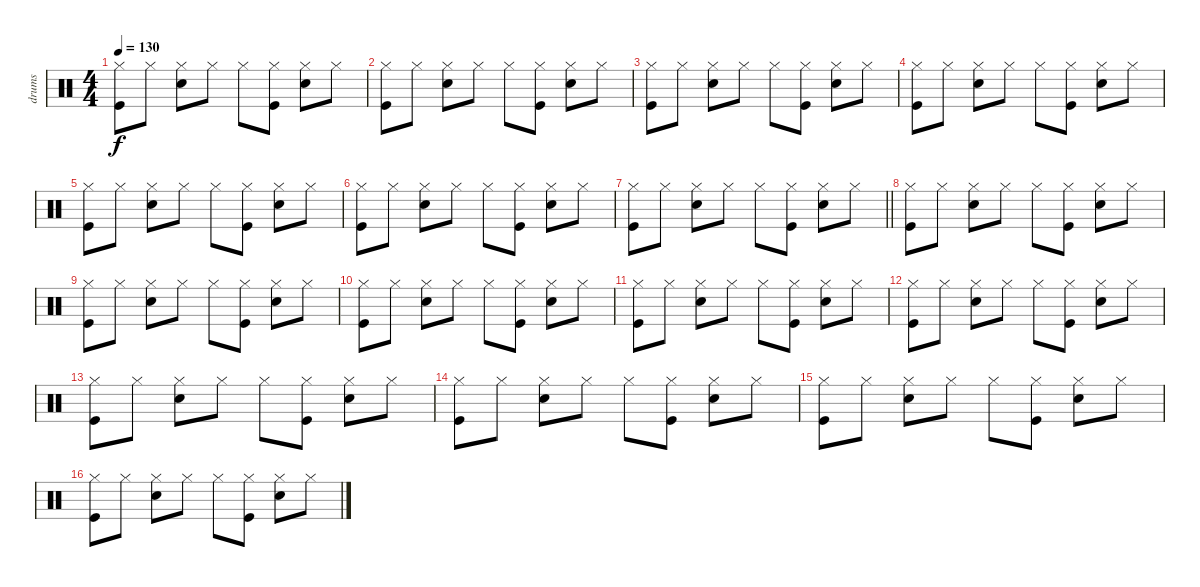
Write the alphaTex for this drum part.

\track ("drums" "drums") {instrument percussion}
\staff {score}
\articulation defaults
\ts (4 4)
\tempo 130
\clef neutral
\ks c
("Hi-Hat (closed)" "Kick (hit)").8{dy f} "Hi-Hat (closed)".8 ("Hi-Hat (closed)" "Snare (hit) 2").8 "Hi-Hat (closed)".8 "Hi-Hat (closed)".8 ("Hi-Hat (closed)" "Kick (hit)").8 ("Hi-Hat (closed)" "Snare (hit) 2").8 "Hi-Hat (closed)".8 |
("Hi-Hat (closed)" "Kick (hit)").8 "Hi-Hat (closed)".8 ("Hi-Hat (closed)" "Snare (hit) 2").8 "Hi-Hat (closed)".8 "Hi-Hat (closed)".8 ("Hi-Hat (closed)" "Kick (hit)").8 ("Hi-Hat (closed)" "Snare (hit) 2").8 "Hi-Hat (closed)".8 |
("Hi-Hat (closed)" "Kick (hit)").8 "Hi-Hat (closed)".8 ("Hi-Hat (closed)" "Snare (hit) 2").8 "Hi-Hat (closed)".8 "Hi-Hat (closed)".8 ("Hi-Hat (closed)" "Kick (hit)").8 ("Hi-Hat (closed)" "Snare (hit) 2").8 "Hi-Hat (closed)".8 |
("Hi-Hat (closed)" "Kick (hit)").8 "Hi-Hat (closed)".8 ("Hi-Hat (closed)" "Snare (hit) 2").8 "Hi-Hat (closed)".8 "Hi-Hat (closed)".8 ("Hi-Hat (closed)" "Kick (hit)").8 ("Hi-Hat (closed)" "Snare (hit) 2").8 "Hi-Hat (closed)".8 |
("Hi-Hat (closed)" "Kick (hit)").8 "Hi-Hat (closed)".8 ("Hi-Hat (closed)" "Snare (hit) 2").8 "Hi-Hat (closed)".8 "Hi-Hat (closed)".8 ("Hi-Hat (closed)" "Kick (hit)").8 ("Hi-Hat (closed)" "Snare (hit) 2").8 "Hi-Hat (closed)".8 |
("Hi-Hat (closed)" "Kick (hit)").8 "Hi-Hat (closed)".8 ("Hi-Hat (closed)" "Snare (hit) 2").8 "Hi-Hat (closed)".8 "Hi-Hat (closed)".8 ("Hi-Hat (closed)" "Kick (hit)").8 ("Hi-Hat (closed)" "Snare (hit) 2").8 "Hi-Hat (closed)".8 |
\barLineRight lightlight
("Hi-Hat (closed)" "Kick (hit)").8 "Hi-Hat (closed)".8 ("Hi-Hat (closed)" "Snare (hit) 2").8 "Hi-Hat (closed)".8 "Hi-Hat (closed)".8 ("Hi-Hat (closed)" "Kick (hit)").8 ("Hi-Hat (closed)" "Snare (hit) 2").8 "Hi-Hat (closed)".8 |
("Hi-Hat (closed)" "Kick (hit)").8 "Hi-Hat (closed)".8 ("Hi-Hat (closed)" "Snare (hit) 2").8 "Hi-Hat (closed)".8 "Hi-Hat (closed)".8 ("Hi-Hat (closed)" "Kick (hit)").8 ("Hi-Hat (closed)" "Snare (hit) 2").8 "Hi-Hat (closed)".8 |
("Hi-Hat (closed)" "Kick (hit)").8 "Hi-Hat (closed)".8 ("Hi-Hat (closed)" "Snare (hit) 2").8 "Hi-Hat (closed)".8 "Hi-Hat (closed)".8 ("Hi-Hat (closed)" "Kick (hit)").8 ("Hi-Hat (closed)" "Snare (hit) 2").8 "Hi-Hat (closed)".8 |
("Hi-Hat (closed)" "Kick (hit)").8 "Hi-Hat (closed)".8 ("Hi-Hat (closed)" "Snare (hit) 2").8 "Hi-Hat (closed)".8 "Hi-Hat (closed)".8 ("Hi-Hat (closed)" "Kick (hit)").8 ("Hi-Hat (closed)" "Snare (hit) 2").8 "Hi-Hat (closed)".8 |
("Hi-Hat (closed)" "Kick (hit)").8 "Hi-Hat (closed)".8 ("Hi-Hat (closed)" "Snare (hit) 2").8 "Hi-Hat (closed)".8 "Hi-Hat (closed)".8 ("Hi-Hat (closed)" "Kick (hit)").8 ("Hi-Hat (closed)" "Snare (hit) 2").8 "Hi-Hat (closed)".8 |
("Hi-Hat (closed)" "Kick (hit)").8 "Hi-Hat (closed)".8 ("Hi-Hat (closed)" "Snare (hit) 2").8 "Hi-Hat (closed)".8 "Hi-Hat (closed)".8 ("Hi-Hat (closed)" "Kick (hit)").8 ("Hi-Hat (closed)" "Snare (hit) 2").8 "Hi-Hat (closed)".8 |
("Hi-Hat (closed)" "Kick (hit)").8 "Hi-Hat (closed)".8 ("Hi-Hat (closed)" "Snare (hit) 2").8 "Hi-Hat (closed)".8 "Hi-Hat (closed)".8 ("Hi-Hat (closed)" "Kick (hit)").8 ("Hi-Hat (closed)" "Snare (hit) 2").8 "Hi-Hat (closed)".8 |
("Hi-Hat (closed)" "Kick (hit)").8 "Hi-Hat (closed)".8 ("Hi-Hat (closed)" "Snare (hit) 2").8 "Hi-Hat (closed)".8 "Hi-Hat (closed)".8 ("Hi-Hat (closed)" "Kick (hit)").8 ("Hi-Hat (closed)" "Snare (hit) 2").8 "Hi-Hat (closed)".8 |
("Hi-Hat (closed)" "Kick (hit)").8 "Hi-Hat (closed)".8 ("Hi-Hat (closed)" "Snare (hit) 2").8 "Hi-Hat (closed)".8 "Hi-Hat (closed)".8 ("Hi-Hat (closed)" "Kick (hit)").8 ("Hi-Hat (closed)" "Snare (hit) 2").8 "Hi-Hat (closed)".8 |
("Hi-Hat (closed)" "Kick (hit)").8 "Hi-Hat (closed)".8 ("Hi-Hat (closed)" "Snare (hit) 2").8 "Hi-Hat (closed)".8 "Hi-Hat (closed)".8 ("Hi-Hat (closed)" "Kick (hit)").8 ("Hi-Hat (closed)" "Snare (hit) 2").8 "Hi-Hat (closed)".8
